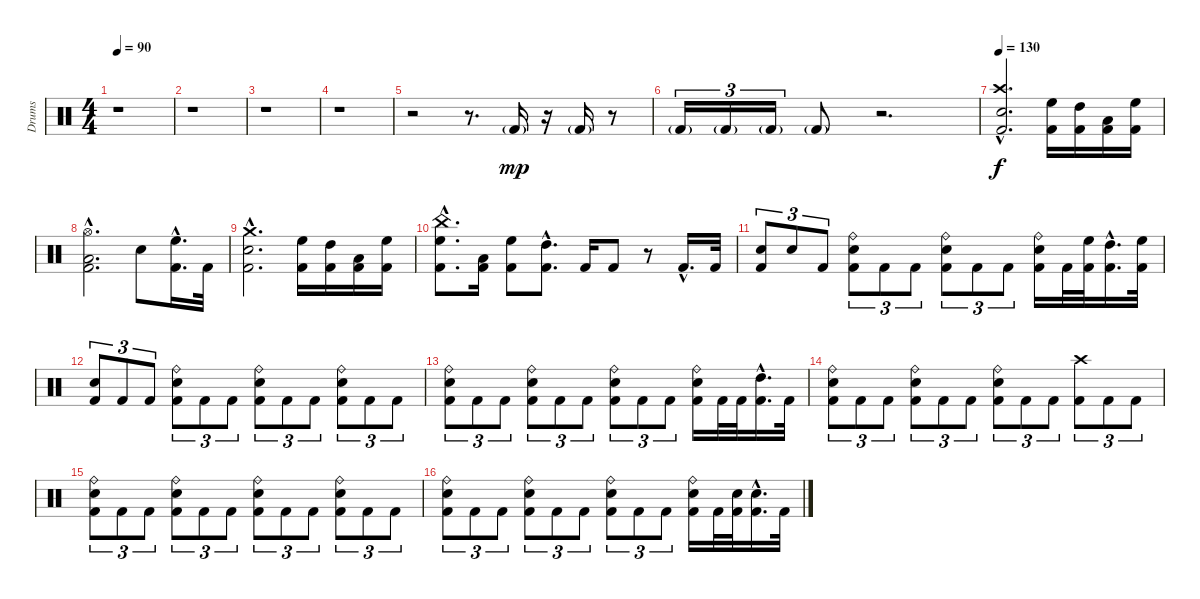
\track ("Drums" "Drums") {instrument percussion}
\staff {score}
\articulation defaults
\ts (4 4)
\tempo 90
\clef neutral
\ks c
r.1{dy f} |
r.1 |
r.1 |
r.1 |
r.2 r.8{d} "Kick (hit) 2"{g}.16{dy mp} r.16 "Kick (hit) 2"{g}.16 r.8 |
"Kick (hit) 2"{g}.16{tu (3 2)} "Kick (hit) 2"{g}.16{tu (3 2)} "Kick (hit) 2"{g}.16{tu (3 2)} "Kick (hit) 2"{g}.8 r.2{d} |
\tempo 130
("Crash high (hit)"{hac} "Snare (hit) 2"{hac} "Kick (hit) 2"{hac}).2{d dy f} ("High Floor Tom (hit)" "Kick (hit) 2").16 ("High Tom (hit)" "Kick (hit) 2").16 ("Low Tom (hit)" "Kick (hit) 2").16 ("High Floor Tom (hit)" "Kick (hit) 2").16 |
("Hi-Hat (open)"{hac} "Low Tom (hit)"{hac} "Kick (hit) 2"{hac}).2{d} "Snare (hit) 2".8 ("High Floor Tom (hit)"{hac} "Kick (hit) 2"{hac}).16{d} "Kick (hit) 2".32 |
("Crash medium (hit)"{hac} "Snare (hit) 2"{hac} "Kick (hit) 2"{hac}).2{d} ("High Floor Tom (hit)" "Kick (hit) 2").16 ("High Tom (hit)" "Kick (hit) 2").16 ("Low Tom (hit)" "Kick (hit) 2").16 ("High Floor Tom (hit)" "Kick (hit) 2").16 |
("China (hit)"{hac} "High Floor Tom (hit)"{hac} "Kick (hit) 2"{hac}).8{d} ("Low Tom (hit)" "Kick (hit) 2").16 ("High Floor Tom (hit)" "Kick (hit) 2").8 ("High Tom (hit)"{hac} "Kick (hit) 2"{hac}).8{d} "Kick (hit) 2".16 "Kick (hit) 2".8 r.8 "Kick (hit) 2"{hac}.16{d} "Kick (hit) 2".32 |
("Snare (hit) 2" "Kick (hit) 2").8{tu (3 2)} "Snare (hit) 2".8{tu (3 2)} "Kick (hit) 2".8{tu (3 2)} ("Ride (bell)" "Snare (hit) 2" "Kick (hit) 2").8{tu (3 2)} "Kick (hit) 2".8{tu (3 2)} "Kick (hit) 2".8{tu (3 2)} ("Ride (bell)" "Snare (hit) 2" "Kick (hit) 2").8{tu (3 2)} "Kick (hit) 2".8{tu (3 2)} "Kick (hit) 2".8{tu (3 2)} ("Ride (bell)" "Snare (hit) 2" "Kick (hit) 2").16 "Kick (hit) 2".32 ("High Floor Tom (hit)" "Kick (hit) 2").32 ("High Tom (hit)"{hac} "Kick (hit) 2"{hac}).16{d} ("High Floor Tom (hit)" "Kick (hit) 2").32 |
("Snare (hit) 2" "Kick (hit) 2").8{tu (3 2)} "Kick (hit) 2".8{tu (3 2)} "Kick (hit) 2".8{tu (3 2)} ("Ride (bell)" "Snare (hit) 2" "Kick (hit) 2").8{tu (3 2)} "Kick (hit) 2".8{tu (3 2)} "Kick (hit) 2".8{tu (3 2)} ("Ride (bell)" "Snare (hit) 2" "Kick (hit) 2").8{tu (3 2)} "Kick (hit) 2".8{tu (3 2)} "Kick (hit) 2".8{tu (3 2)} ("Ride (bell)" "Snare (hit) 2" "Kick (hit) 2").8{tu (3 2)} "Kick (hit) 2".8{tu (3 2)} "Kick (hit) 2".8{tu (3 2)} |
("Ride (bell)" "Snare (hit) 2" "Kick (hit) 2").8{tu (3 2)} "Kick (hit) 2".8{tu (3 2)} "Kick (hit) 2".8{tu (3 2)} ("Ride (bell)" "Snare (hit) 2" "Kick (hit) 2").8{tu (3 2)} "Kick (hit) 2".8{tu (3 2)} "Kick (hit) 2".8{tu (3 2)} ("Ride (bell)" "Snare (hit) 2" "Kick (hit) 2").8{tu (3 2)} "Kick (hit) 2".8{tu (3 2)} "Kick (hit) 2".8{tu (3 2)} ("Ride (bell)" "Snare (hit) 2" "Kick (hit) 2").16 "Kick (hit) 2".32 "Kick (hit) 2".32 ("High Tom (hit)"{hac} "Kick (hit) 2"{hac}).16{d} "Kick (hit) 2".32 |
("Ride (bell)" "Snare (hit) 2" "Kick (hit) 2").8{tu (3 2)} "Kick (hit) 2".8{tu (3 2)} "Kick (hit) 2".8{tu (3 2)} ("Ride (bell)" "Snare (hit) 2" "Kick (hit) 2").8{tu (3 2)} "Kick (hit) 2".8{tu (3 2)} "Kick (hit) 2".8{tu (3 2)} ("Ride (bell)" "Snare (hit) 2" "Kick (hit) 2").8{tu (3 2)} "Kick (hit) 2".8{tu (3 2)} "Kick (hit) 2".8{tu (3 2)} ("Crash high (hit)" "Kick (hit) 2").8{tu (3 2)} "Kick (hit) 2".8{tu (3 2)} "Kick (hit) 2".8{tu (3 2)} |
("Ride (bell)" "Snare (hit) 2" "Kick (hit) 2").8{tu (3 2)} "Kick (hit) 2".8{tu (3 2)} "Kick (hit) 2".8{tu (3 2)} ("Ride (bell)" "Snare (hit) 2" "Kick (hit) 2").8{tu (3 2)} "Kick (hit) 2".8{tu (3 2)} "Kick (hit) 2".8{tu (3 2)} ("Ride (bell)" "Snare (hit) 2" "Kick (hit) 2").8{tu (3 2)} "Kick (hit) 2".8{tu (3 2)} "Kick (hit) 2".8{tu (3 2)} ("Ride (bell)" "Snare (hit) 2" "Kick (hit) 2").8{tu (3 2)} "Kick (hit) 2".8{tu (3 2)} "Kick (hit) 2".8{tu (3 2)} |
("Ride (bell)" "Snare (hit) 2" "Kick (hit) 2").8{tu (3 2)} "Kick (hit) 2".8{tu (3 2)} "Kick (hit) 2".8{tu (3 2)} ("Ride (bell)" "Snare (hit) 2" "Kick (hit) 2").8{tu (3 2)} "Kick (hit) 2".8{tu (3 2)} "Kick (hit) 2".8{tu (3 2)} ("Ride (bell)" "Snare (hit) 2" "Kick (hit) 2").8{tu (3 2)} "Kick (hit) 2".8{tu (3 2)} "Kick (hit) 2".8{tu (3 2)} ("Ride (bell)" "Snare (hit) 2" "Kick (hit) 2").16 "Kick (hit) 2".32 ("Snare (hit) 2" "Kick (hit) 2").32 ("Snare (hit) 2"{hac} "Kick (hit) 2"{hac}).16{d} "Kick (hit) 2".32
